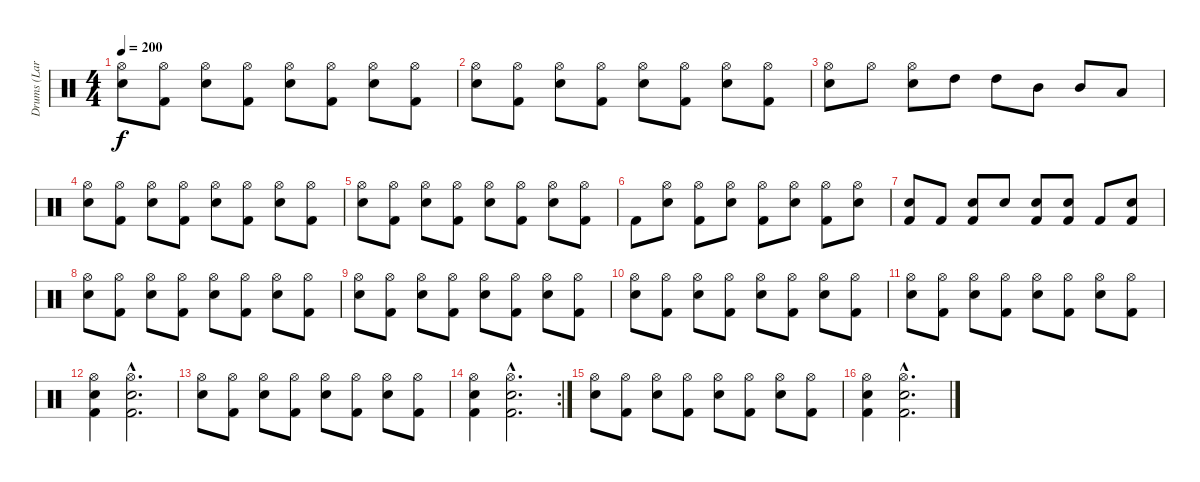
\track ("Drums (Lars Ulrich)" "Drums (Lar") {instrument percussion}
\staff {score}
\articulation defaults
\ts (4 4)
\tempo 200
\clef neutral
\ks c
("Hi-Hat (open)" "Snare (hit) 2").8{dy f} ("Hi-Hat (open)" "Kick (hit) 2").8 ("Hi-Hat (open)" "Snare (hit) 2").8 ("Hi-Hat (open)" "Kick (hit) 2").8 ("Hi-Hat (open)" "Snare (hit) 2").8 ("Hi-Hat (open)" "Kick (hit) 2").8 ("Hi-Hat (open)" "Snare (hit) 2").8 ("Hi-Hat (open)" "Kick (hit) 2").8 |
("Hi-Hat (open)" "Snare (hit) 2").8 ("Hi-Hat (open)" "Kick (hit) 2").8 ("Hi-Hat (open)" "Snare (hit) 2").8 ("Hi-Hat (open)" "Kick (hit) 2").8 ("Hi-Hat (open)" "Snare (hit) 2").8 ("Hi-Hat (open)" "Kick (hit) 2").8 ("Hi-Hat (open)" "Snare (hit) 2").8 ("Hi-Hat (open)" "Kick (hit) 2").8 |
("Hi-Hat (open)" "Snare (hit) 2").8 "Hi-Hat (open)".8 ("Hi-Hat (open)" "Snare (hit) 2").8 "High Tom (hit)".8 "High Tom (hit)".8 "Mid Tom (hit)".8 "Mid Tom (hit)".8 "Low Tom (hit)".8 |
("Hi-Hat (open)" "Snare (hit) 2").8 ("Hi-Hat (open)" "Kick (hit) 2").8 ("Hi-Hat (open)" "Snare (hit) 2").8 ("Hi-Hat (open)" "Kick (hit) 2").8 ("Hi-Hat (open)" "Snare (hit) 2").8 ("Hi-Hat (open)" "Kick (hit) 2").8 ("Hi-Hat (open)" "Snare (hit) 2").8 ("Hi-Hat (open)" "Kick (hit) 2").8 |
("Hi-Hat (open)" "Snare (hit) 2").8 ("Hi-Hat (open)" "Kick (hit) 2").8 ("Hi-Hat (open)" "Snare (hit) 2").8 ("Hi-Hat (open)" "Kick (hit) 2").8 ("Hi-Hat (open)" "Snare (hit) 2").8 ("Hi-Hat (open)" "Kick (hit) 2").8 ("Hi-Hat (open)" "Snare (hit) 2").8 ("Hi-Hat (open)" "Kick (hit) 2").8 |
"Kick (hit) 2".8 ("Hi-Hat (open)" "Snare (hit) 2").8 ("Hi-Hat (open)" "Kick (hit) 2").8 ("Hi-Hat (open)" "Snare (hit) 2").8 ("Hi-Hat (open)" "Kick (hit) 2").8 ("Hi-Hat (open)" "Snare (hit) 2").8 ("Hi-Hat (open)" "Kick (hit) 2").8 ("Hi-Hat (open)" "Snare (hit) 2").8 |
("Kick (hit) 2" "Snare (hit) 2").8 "Kick (hit) 2".8 ("Kick (hit) 2" "Snare (hit) 2").8 "Snare (hit) 2".8 ("Kick (hit) 2" "Snare (hit) 2").8 ("Kick (hit) 2" "Snare (hit) 2").8 "Kick (hit) 2".8 ("Kick (hit) 2" "Snare (hit) 2").8 |
("Hi-Hat (open)" "Snare (hit) 2").8 ("Hi-Hat (open)" "Kick (hit) 2").8 ("Hi-Hat (open)" "Snare (hit) 2").8 ("Hi-Hat (open)" "Kick (hit) 2").8 ("Hi-Hat (open)" "Snare (hit) 2").8 ("Hi-Hat (open)" "Kick (hit) 2").8 ("Hi-Hat (open)" "Snare (hit) 2").8 ("Hi-Hat (open)" "Kick (hit) 2").8 |
("Hi-Hat (open)" "Snare (hit) 2").8 ("Hi-Hat (open)" "Kick (hit) 2").8 ("Hi-Hat (open)" "Snare (hit) 2").8 ("Hi-Hat (open)" "Kick (hit) 2").8 ("Hi-Hat (open)" "Snare (hit) 2").8 ("Hi-Hat (open)" "Kick (hit) 2").8 ("Hi-Hat (open)" "Snare (hit) 2").8 ("Hi-Hat (open)" "Kick (hit) 2").8 |
("Hi-Hat (open)" "Snare (hit) 2").8 ("Hi-Hat (open)" "Kick (hit) 2").8 ("Hi-Hat (open)" "Snare (hit) 2").8 ("Hi-Hat (open)" "Kick (hit) 2").8 ("Hi-Hat (open)" "Snare (hit) 2").8 ("Hi-Hat (open)" "Kick (hit) 2").8 ("Hi-Hat (open)" "Snare (hit) 2").8 ("Hi-Hat (open)" "Kick (hit) 2").8 |
("Hi-Hat (open)" "Snare (hit) 2").8 ("Hi-Hat (open)" "Kick (hit) 2").8 ("Hi-Hat (open)" "Snare (hit) 2").8 ("Hi-Hat (open)" "Kick (hit) 2").8 ("Hi-Hat (open)" "Snare (hit) 2").8 ("Hi-Hat (open)" "Kick (hit) 2").8 ("Hi-Hat (open)" "Snare (hit) 2").8 ("Hi-Hat (open)" "Kick (hit) 2").8 |
("Hi-Hat (open)" "Snare (hit) 2" "Kick (hit) 2").4 ("Hi-Hat (open)"{hac} "Snare (hit) 2"{hac} "Kick (hit) 2"{hac}).2{d} |
("Hi-Hat (open)" "Snare (hit) 2").8 ("Hi-Hat (open)" "Kick (hit) 2").8 ("Hi-Hat (open)" "Snare (hit) 2").8 ("Hi-Hat (open)" "Kick (hit) 2").8 ("Hi-Hat (open)" "Snare (hit) 2").8 ("Hi-Hat (open)" "Kick (hit) 2").8 ("Hi-Hat (open)" "Snare (hit) 2").8 ("Hi-Hat (open)" "Kick (hit) 2").8 |
\rc 2
("Hi-Hat (open)" "Snare (hit) 2" "Kick (hit) 2").4 ("Hi-Hat (open)"{hac} "Snare (hit) 2"{hac} "Kick (hit) 2"{hac}).2{d} |
("Hi-Hat (open)" "Snare (hit) 2").8 ("Hi-Hat (open)" "Kick (hit) 2").8 ("Hi-Hat (open)" "Snare (hit) 2").8 ("Hi-Hat (open)" "Kick (hit) 2").8 ("Hi-Hat (open)" "Snare (hit) 2").8 ("Hi-Hat (open)" "Kick (hit) 2").8 ("Hi-Hat (open)" "Snare (hit) 2").8 ("Hi-Hat (open)" "Kick (hit) 2").8 |
("Hi-Hat (open)" "Snare (hit) 2" "Kick (hit) 2").4 ("Hi-Hat (open)"{hac} "Snare (hit) 2"{hac} "Kick (hit) 2"{hac}).2{d}
